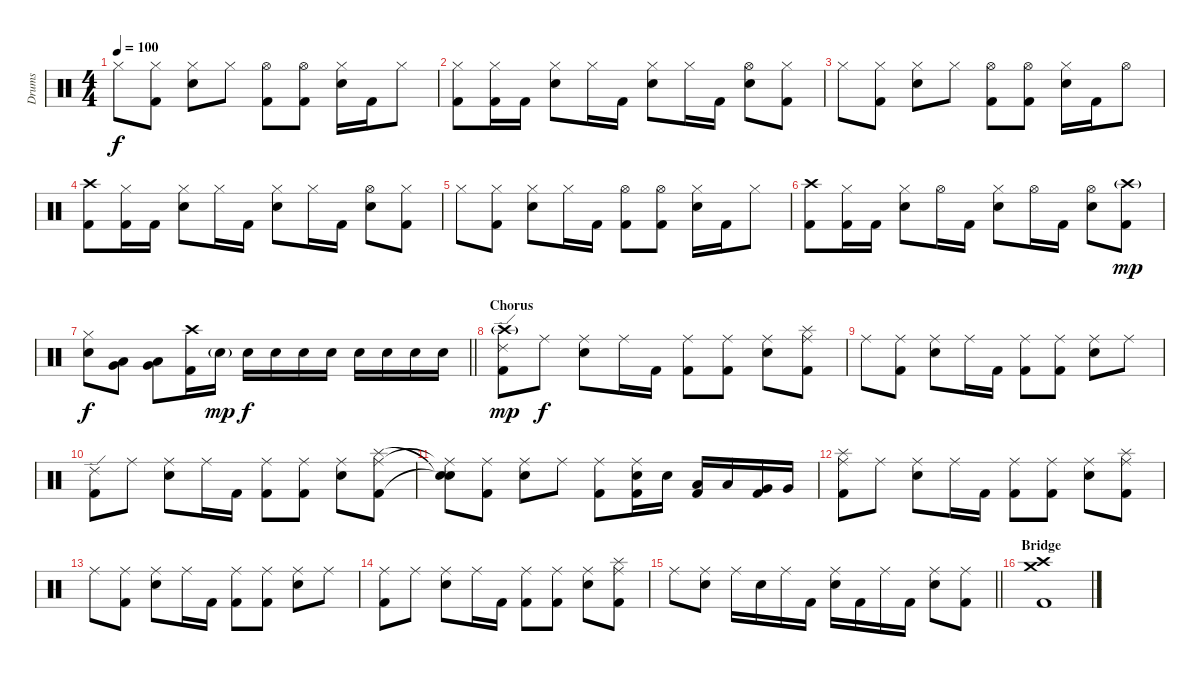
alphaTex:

\track ("Drums" "Drums") {instrument percussion}
\staff {score}
\articulation defaults
\ts (4 4)
\tempo 100
\clef neutral
\ks c "Hi-Hat (closed)".8{dy f}
("Kick (hit) 2" "Hi-Hat (closed)").8 ("Snare (hit) 2" "Hi-Hat (closed)").8 "Hi-Hat (closed)".8 ("Hi-Hat (open)" "Kick (hit) 2").8 ("Hi-Hat (open)" "Kick (hit) 2").8 ("Snare (hit) 2" "Hi-Hat (closed)").16 "Kick (hit) 2".16 "Hi-Hat (closed)".8 |
("Kick (hit) 2" "Hi-Hat (closed)").8 ("Kick (hit) 2" "Hi-Hat (closed)").16 "Kick (hit) 2".16 ("Snare (hit) 2" "Hi-Hat (closed)").8 "Hi-Hat (closed)".16 "Kick (hit) 2".16 ("Snare (hit) 2" "Hi-Hat (closed)").8 "Hi-Hat (closed)".16 "Kick (hit) 2".16 ("Snare (hit) 2" "Hi-Hat (open)").8 ("Hi-Hat (closed)" "Kick (hit) 2").8 |
"Hi-Hat (closed)".8 ("Kick (hit) 2" "Hi-Hat (closed)").8 ("Snare (hit) 2" "Hi-Hat (closed)").8 "Hi-Hat (closed)".8 ("Hi-Hat (open)" "Kick (hit) 2").8 ("Hi-Hat (open)" "Kick (hit) 2").8 ("Snare (hit) 2" "Hi-Hat (closed)").16 "Kick (hit) 2".16 "Hi-Hat (open)".8 |
("Kick (hit) 2" "Crash high (hit)").8 ("Kick (hit) 2" "Hi-Hat (closed)").16 "Kick (hit) 2".16 ("Snare (hit) 2" "Hi-Hat (closed)").8 "Hi-Hat (closed)".16 "Kick (hit) 2".16 ("Snare (hit) 2" "Hi-Hat (closed)").8 "Hi-Hat (closed)".16 "Kick (hit) 2".16 ("Snare (hit) 2" "Hi-Hat (open)").8 ("Hi-Hat (closed)" "Kick (hit) 2").8 |
"Hi-Hat (closed)".8 ("Kick (hit) 2" "Hi-Hat (closed)").8 ("Snare (hit) 2" "Hi-Hat (closed)").8 "Hi-Hat (closed)".16 "Kick (hit) 2".16 ("Hi-Hat (open)" "Kick (hit) 2").8 ("Hi-Hat (open)" "Kick (hit) 2").8 ("Snare (hit) 2" "Hi-Hat (closed)").16 "Kick (hit) 2".16 "Hi-Hat (closed)".8 |
("Kick (hit) 2" "Crash high (hit)").8 ("Kick (hit) 2" "Hi-Hat (closed)").16 "Kick (hit) 2".16 ("Snare (hit) 2" "Hi-Hat (closed)").8 "Hi-Hat (open)".16 "Kick (hit) 2".16 ("Snare (hit) 2" "Hi-Hat (closed)").8 "Hi-Hat (open)".16 "Kick (hit) 2".16 ("Snare (hit) 2" "Hi-Hat (open)").8 ("Crash high (hit)"{g} "Kick (hit) 2").8{dy mp} |
\barLineRight lightlight
("Hi-Hat (closed)" "Snare (hit) 2").8{dy f} ("Very Low Tom (hit)" "Low Floor Tom (hit)").8 ("Very Low Tom (hit)" "Low Floor Tom (hit)").8 ("Kick (hit) 2" "Crash high (hit)").16 "Snare (hit) 2"{g}.16{dy mp} "Snare (hit) 2".16{dy f} "Snare (hit) 2".16 "Snare (hit) 2".16 "Snare (hit) 2".16 "Snare (hit) 2".16 "Snare (hit) 2".16 "Snare (hit) 2".16 "Snare (hit) 2".16 |
\section ("" "Chorus")
("Ride (edge) 2" "Kick (hit) 2" "Crash high (hit)"{g}).8{dy mp} "Ride (middle)".8{dy f} ("Ride (middle)" "Snare (hit) 2").8 "Ride (middle)".16 "Kick (hit) 2".16 ("Ride (middle)" "Kick (hit) 2").8 ("Ride (middle)" "Kick (hit) 2").8 ("Ride (middle)" "Snare (hit) 2").8 ("Ride (middle)" "Kick (hit) 2" "Splash (hit)").8 |
"Ride (middle)".8 ("Ride (middle)" "Kick (hit) 2").8 ("Ride (middle)" "Snare (hit) 2").8 "Ride (middle)".16 "Kick (hit) 2".16 ("Ride (middle)" "Kick (hit) 2").8 ("Ride (middle)" "Kick (hit) 2").8 ("Ride (middle)" "Snare (hit) 2").8 "Ride (middle)".8 |
("Ride (edge) 2" "Kick (hit) 2").8 "Ride (middle)".8 ("Ride (middle)" "Snare (hit) 2").8 "Ride (middle)".16 "Kick (hit) 2".16 ("Ride (middle)" "Kick (hit) 2").8 ("Ride (middle)" "Kick (hit) 2").8 ("Ride (middle)" "Snare (hit) 2").8 ("Ride (middle)" "Kick (hit) 2" "Splash (hit)").8 |
("Ride (middle)"{t} "Snare (hit)"{t} "Snare (hit)"{t}).8 ("Ride (middle)" "Kick (hit) 2").8 ("Ride (middle)" "Snare (hit) 2").8 "Ride (middle)".8 ("Ride (middle)" "Kick (hit) 2").8 ("Snare (hit) 2" "Ride (middle)" "Kick (hit) 2").16 "Snare (hit) 2".16 ("Low Tom (hit)" "Kick (hit) 2").16 "Low Tom (hit)".16 ("Very Low Tom (hit)" "Kick (hit) 2").16 "Very Low Tom (hit)".16 |
("Splash (hit)" "Kick (hit) 2" "Ride (middle)").8 "Ride (middle)".8 ("Ride (middle)" "Snare (hit) 2").8 "Ride (middle)".16 "Kick (hit) 2".16 ("Ride (middle)" "Kick (hit) 2").8 ("Ride (middle)" "Kick (hit) 2").8 ("Ride (middle)" "Snare (hit) 2").8 ("Ride (middle)" "Kick (hit) 2" "Splash (hit)").8 |
"Ride (middle)".8 ("Ride (middle)" "Kick (hit) 2").8 ("Ride (middle)" "Snare (hit) 2").8 "Ride (middle)".16 "Kick (hit) 2".16 ("Ride (middle)" "Kick (hit) 2").8 ("Ride (middle)" "Kick (hit) 2").8 ("Ride (middle)" "Snare (hit) 2").8 "Ride (middle)".8 |
("Ride (middle)" "Kick (hit) 2").8 "Ride (middle)".8 ("Ride (middle)" "Snare (hit) 2").8 "Ride (middle)".16 "Kick (hit) 2".16 ("Ride (middle)" "Kick (hit) 2").8 ("Ride (middle)" "Kick (hit) 2").8 ("Ride (middle)" "Snare (hit) 2").8 ("Ride (middle)" "Kick (hit) 2" "Splash (hit)").8 |
\barLineRight lightlight "Ride (middle)".8
("Ride (middle)" "Snare (hit) 2").8 "Ride (middle)".16 "Snare (hit) 2".16 "Ride (middle)".16 "Kick (hit) 2".16 ("Ride (middle)" "Snare (hit) 2").16 "Kick (hit) 2".16 "Ride (middle)".16 "Kick (hit) 2".16 ("Ride (middle)" "Snare (hit) 2").8 ("Ride (middle)" "Kick (hit) 2").8 |
\section ("" "Bridge")
("Kick (hit) 2" "Crash high (hit)" "Crash medium (hit)").1
